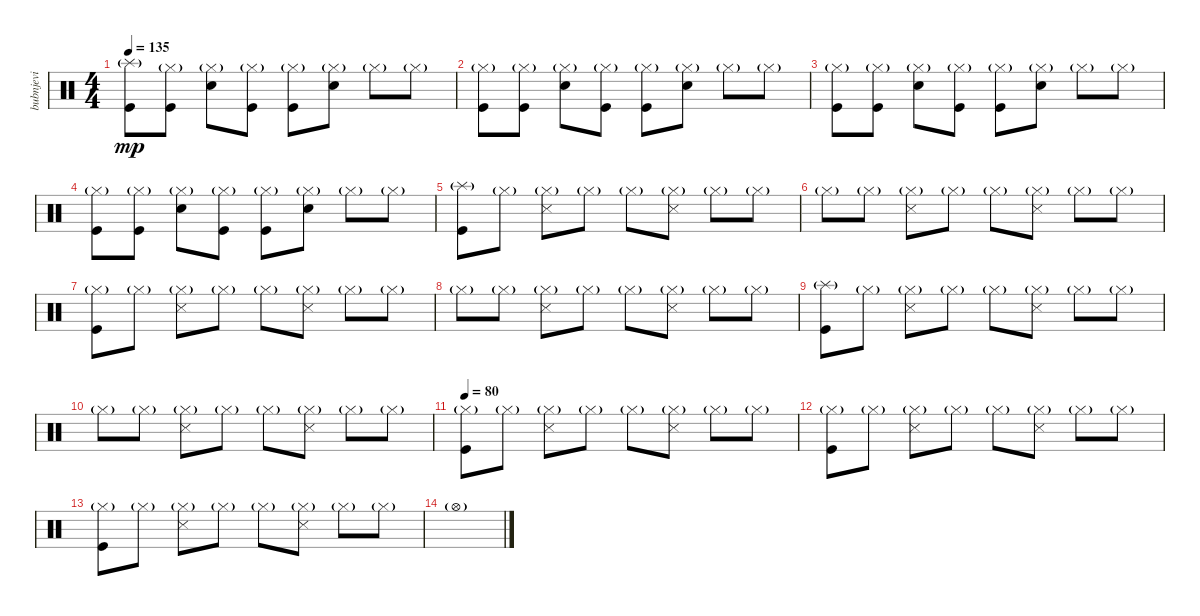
\track ("bubnjevi" "bubnjevi") {instrument percussion}
\staff {score}
\articulation defaults
\ts (4 4)
\tempo 135
\clef neutral
\ks c
("Splash (hit)"{g} "Kick (hit)").8{dy mp} ("Hi-Hat (closed)"{g} "Kick (hit)").8 ("Hi-Hat (closed)"{g} "Electric Snare (hit)").8 ("Hi-Hat (closed)"{g} "Kick (hit)").8 ("Hi-Hat (closed)"{g} "Kick (hit)").8 ("Hi-Hat (closed)"{g} "Electric Snare (hit)").8 "Hi-Hat (closed)"{g}.8 "Hi-Hat (closed)"{g}.8 |
("Hi-Hat (closed)"{g} "Kick (hit)").8 ("Hi-Hat (closed)"{g} "Kick (hit)").8 ("Hi-Hat (closed)"{g} "Electric Snare (hit)").8 ("Hi-Hat (closed)"{g} "Kick (hit)").8 ("Hi-Hat (closed)"{g} "Kick (hit)").8 ("Hi-Hat (closed)"{g} "Electric Snare (hit)").8 "Hi-Hat (closed)"{g}.8 "Hi-Hat (closed)"{g}.8 |
("Hi-Hat (closed)"{g} "Kick (hit)").8 ("Hi-Hat (closed)"{g} "Kick (hit)").8 ("Hi-Hat (closed)"{g} "Electric Snare (hit)").8 ("Hi-Hat (closed)"{g} "Kick (hit)").8 ("Hi-Hat (closed)"{g} "Kick (hit)").8 ("Hi-Hat (closed)"{g} "Electric Snare (hit)").8 "Hi-Hat (closed)"{g}.8 "Hi-Hat (closed)"{g}.8 |
("Hi-Hat (closed)"{g} "Kick (hit)").8 ("Hi-Hat (closed)"{g} "Kick (hit)").8 ("Hi-Hat (closed)"{g} "Electric Snare (hit)").8 ("Hi-Hat (closed)"{g} "Kick (hit)").8 ("Hi-Hat (closed)"{g} "Kick (hit)").8 ("Hi-Hat (closed)"{g} "Electric Snare (hit)").8 "Hi-Hat (closed)"{g}.8 "Hi-Hat (closed)"{g}.8 |
("Splash (hit)"{g} "Kick (hit)").8 "Hi-Hat (closed)"{g}.8 ("Hi-Hat (closed)"{g} "Snare (side stick) 3").8 "Hi-Hat (closed)"{g}.8 "Hi-Hat (closed)"{g}.8 ("Hi-Hat (closed)"{g} "Snare (side stick) 3").8 "Hi-Hat (closed)"{g}.8 "Hi-Hat (closed)"{g}.8 |
"Hi-Hat (closed)"{g}.8 "Hi-Hat (closed)"{g}.8 ("Hi-Hat (closed)"{g} "Snare (side stick) 3").8 "Hi-Hat (closed)"{g}.8 "Hi-Hat (closed)"{g}.8 ("Hi-Hat (closed)"{g} "Snare (side stick) 3").8 "Hi-Hat (closed)"{g}.8 "Hi-Hat (closed)"{g}.8 |
("Hi-Hat (closed)"{g} "Kick (hit)").8 "Hi-Hat (closed)"{g}.8 ("Hi-Hat (closed)"{g} "Snare (side stick) 3").8 "Hi-Hat (closed)"{g}.8 "Hi-Hat (closed)"{g}.8 ("Hi-Hat (closed)"{g} "Snare (side stick) 3").8 "Hi-Hat (closed)"{g}.8 "Hi-Hat (closed)"{g}.8 |
"Hi-Hat (closed)"{g}.8 "Hi-Hat (closed)"{g}.8 ("Hi-Hat (closed)"{g} "Snare (side stick) 3").8 "Hi-Hat (closed)"{g}.8 "Hi-Hat (closed)"{g}.8 ("Hi-Hat (closed)"{g} "Snare (side stick) 3").8 "Hi-Hat (closed)"{g}.8 "Hi-Hat (closed)"{g}.8 |
("Splash (hit)"{g} "Kick (hit)").8 "Hi-Hat (closed)"{g}.8 ("Hi-Hat (closed)"{g} "Snare (side stick) 3").8 "Hi-Hat (closed)"{g}.8 "Hi-Hat (closed)"{g}.8 ("Hi-Hat (closed)"{g} "Snare (side stick) 3").8 "Hi-Hat (closed)"{g}.8 "Hi-Hat (closed)"{g}.8 |
"Hi-Hat (closed)"{g}.8 "Hi-Hat (closed)"{g}.8 ("Hi-Hat (closed)"{g} "Snare (side stick) 3").8 "Hi-Hat (closed)"{g}.8 "Hi-Hat (closed)"{g}.8 ("Hi-Hat (closed)"{g} "Snare (side stick) 3").8 "Hi-Hat (closed)"{g}.8 "Hi-Hat (closed)"{g}.8 |
\tempo 80
("Hi-Hat (closed)"{g} "Kick (hit)").8 "Hi-Hat (closed)"{g}.8 ("Hi-Hat (closed)"{g} "Snare (side stick) 3").8 "Hi-Hat (closed)"{g}.8 "Hi-Hat (closed)"{g}.8 ("Hi-Hat (closed)"{g} "Snare (side stick) 3").8 "Hi-Hat (closed)"{g}.8 "Hi-Hat (closed)"{g}.8 |
("Hi-Hat (closed)"{g} "Kick (hit)").8 "Hi-Hat (closed)"{g}.8 ("Hi-Hat (closed)"{g} "Snare (side stick) 3").8 "Hi-Hat (closed)"{g}.8 "Hi-Hat (closed)"{g}.8 ("Hi-Hat (closed)"{g} "Snare (side stick) 3").8 "Hi-Hat (closed)"{g}.8 "Hi-Hat (closed)"{g}.8 |
("Hi-Hat (closed)"{g} "Kick (hit)").8 "Hi-Hat (closed)"{g}.8 ("Hi-Hat (closed)"{g} "Snare (side stick) 3").8 "Hi-Hat (closed)"{g}.8 "Hi-Hat (closed)"{g}.8 ("Hi-Hat (closed)"{g} "Snare (side stick) 3").8 "Hi-Hat (closed)"{g}.8 "Hi-Hat (closed)"{g}.8 |
"Hi-Hat (open)"{g}.1
